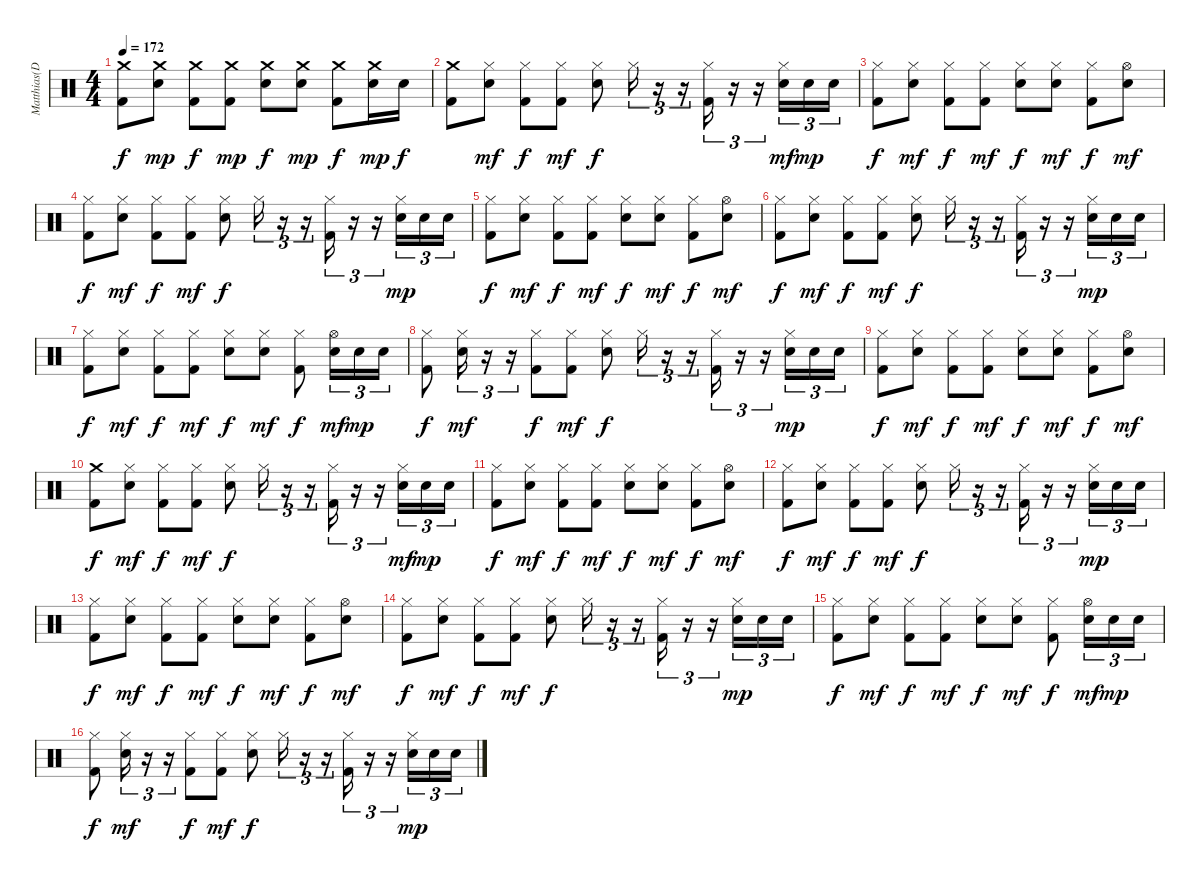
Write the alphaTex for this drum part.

\track ("Matthias(Drums)" "Matthias(D") {instrument percussion}
\staff {score}
\articulation defaults
\ts (4 4)
\tempo 172
\clef neutral
\ks c
("Crash medium (hit)" "Kick (hit) 2").8{dy f} ("Crash medium (hit)" "Snare (hit) 2").8{dy mp} ("Crash medium (hit)" "Kick (hit) 2").8{dy f} ("Crash medium (hit)" "Kick (hit) 2").8{dy mp} ("Crash medium (hit)" "Snare (hit) 2").8{dy f} ("Crash medium (hit)" "Snare (hit) 2").8{dy mp} ("Crash medium (hit)" "Kick (hit) 2").8{dy f} ("Crash medium (hit)" "Snare (hit) 2").16{dy mp} "Snare (hit) 2".16{dy f} |
("Crash medium (hit)" "Kick (hit) 2").8 ("Hi-Hat (closed)" "Snare (hit) 2").8{dy mf} ("Hi-Hat (closed)" "Kick (hit) 2").8{dy f} ("Hi-Hat (closed)" "Kick (hit) 2").8{dy mf} ("Hi-Hat (closed)" "Snare (hit) 2").8{dy f} "Hi-Hat (closed)".16{tu (3 2)} r.16{tu (3 2)} r.16{tu (3 2)} ("Hi-Hat (closed)" "Kick (hit) 2").16{tu (3 2)} r.16{tu (3 2)} r.16{tu (3 2)} ("Hi-Hat (closed)" "Snare (hit) 2").16{tu (3 2) dy mf} "Snare (hit) 2".16{tu (3 2) dy mp} "Snare (hit) 2".16{tu (3 2)} |
("Hi-Hat (closed)" "Kick (hit) 2").8{dy f} ("Hi-Hat (closed)" "Snare (hit) 2").8{dy mf} ("Hi-Hat (closed)" "Kick (hit) 2").8{dy f} ("Hi-Hat (closed)" "Kick (hit) 2").8{dy mf} ("Hi-Hat (closed)" "Snare (hit) 2").8{dy f} ("Hi-Hat (closed)" "Snare (hit) 2").8{dy mf} ("Hi-Hat (closed)" "Kick (hit) 2").8{dy f} ("Hi-Hat (open)" "Snare (hit) 2").8{dy mf} |
("Hi-Hat (closed)" "Kick (hit) 2").8{dy f} ("Hi-Hat (closed)" "Snare (hit) 2").8{dy mf} ("Hi-Hat (closed)" "Kick (hit) 2").8{dy f} ("Hi-Hat (closed)" "Kick (hit) 2").8{dy mf} ("Hi-Hat (closed)" "Snare (hit) 2").8{dy f} "Hi-Hat (closed)".16{tu (3 2)} r.16{tu (3 2)} r.16{tu (3 2)} ("Hi-Hat (closed)" "Kick (hit) 2").16{tu (3 2)} r.16{tu (3 2)} r.16{tu (3 2)} ("Hi-Hat (closed)" "Snare (hit) 2").16{tu (3 2) dy mp} "Snare (hit) 2".16{tu (3 2)} "Snare (hit) 2".16{tu (3 2)} |
("Hi-Hat (closed)" "Kick (hit) 2").8{dy f} ("Hi-Hat (closed)" "Snare (hit) 2").8{dy mf} ("Hi-Hat (closed)" "Kick (hit) 2").8{dy f} ("Hi-Hat (closed)" "Kick (hit) 2").8{dy mf} ("Hi-Hat (closed)" "Snare (hit) 2").8{dy f} ("Hi-Hat (closed)" "Snare (hit) 2").8{dy mf} ("Hi-Hat (closed)" "Kick (hit) 2").8{dy f} ("Hi-Hat (open)" "Snare (hit) 2").8{dy mf} |
("Hi-Hat (closed)" "Kick (hit) 2").8{dy f} ("Hi-Hat (closed)" "Snare (hit) 2").8{dy mf} ("Hi-Hat (closed)" "Kick (hit) 2").8{dy f} ("Hi-Hat (closed)" "Kick (hit) 2").8{dy mf} ("Hi-Hat (closed)" "Snare (hit) 2").8{dy f} "Hi-Hat (closed)".16{tu (3 2)} r.16{tu (3 2)} r.16{tu (3 2)} ("Hi-Hat (closed)" "Kick (hit) 2").16{tu (3 2)} r.16{tu (3 2)} r.16{tu (3 2)} ("Hi-Hat (closed)" "Snare (hit) 2").16{tu (3 2) dy mp} "Snare (hit) 2".16{tu (3 2)} "Snare (hit) 2".16{tu (3 2)} |
("Hi-Hat (closed)" "Kick (hit) 2").8{dy f} ("Hi-Hat (closed)" "Snare (hit) 2").8{dy mf} ("Hi-Hat (closed)" "Kick (hit) 2").8{dy f} ("Hi-Hat (closed)" "Kick (hit) 2").8{dy mf} ("Hi-Hat (closed)" "Snare (hit) 2").8{dy f} ("Hi-Hat (closed)" "Snare (hit) 2").8{dy mf} ("Hi-Hat (closed)" "Kick (hit) 2").8{dy f} ("Hi-Hat (open)" "Snare (hit) 2").16{tu (3 2) dy mf} "Snare (hit) 2".16{tu (3 2) dy mp} "Snare (hit) 2".16{tu (3 2)} |
("Hi-Hat (closed)" "Kick (hit) 2").8{dy f} ("Hi-Hat (closed)" "Snare (hit) 2").16{tu (3 2) dy mf} r.16{tu (3 2)} r.16{tu (3 2)} ("Hi-Hat (closed)" "Kick (hit) 2").8{dy f} ("Hi-Hat (closed)" "Kick (hit) 2").8{dy mf} ("Hi-Hat (closed)" "Snare (hit) 2").8{dy f} "Hi-Hat (closed)".16{tu (3 2)} r.16{tu (3 2)} r.16{tu (3 2)} ("Hi-Hat (closed)" "Kick (hit) 2").16{tu (3 2)} r.16{tu (3 2)} r.16{tu (3 2)} ("Hi-Hat (closed)" "Snare (hit) 2").16{tu (3 2) dy mp} "Snare (hit) 2".16{tu (3 2)} "Snare (hit) 2".16{tu (3 2)} |
("Hi-Hat (closed)" "Kick (hit) 2").8{dy f} ("Hi-Hat (closed)" "Snare (hit) 2").8{dy mf} ("Hi-Hat (closed)" "Kick (hit) 2").8{dy f} ("Hi-Hat (closed)" "Kick (hit) 2").8{dy mf} ("Hi-Hat (closed)" "Snare (hit) 2").8{dy f} ("Hi-Hat (closed)" "Snare (hit) 2").8{dy mf} ("Hi-Hat (closed)" "Kick (hit) 2").8{dy f} ("Hi-Hat (open)" "Snare (hit) 2").8{dy mf} |
("Crash medium (hit)" "Kick (hit) 2").8{dy f} ("Hi-Hat (closed)" "Snare (hit) 2").8{dy mf} ("Hi-Hat (closed)" "Kick (hit) 2").8{dy f} ("Hi-Hat (closed)" "Kick (hit) 2").8{dy mf} ("Hi-Hat (closed)" "Snare (hit) 2").8{dy f} "Hi-Hat (closed)".16{tu (3 2)} r.16{tu (3 2)} r.16{tu (3 2)} ("Hi-Hat (closed)" "Kick (hit) 2").16{tu (3 2)} r.16{tu (3 2)} r.16{tu (3 2)} ("Hi-Hat (closed)" "Snare (hit) 2").16{tu (3 2) dy mf} "Snare (hit) 2".16{tu (3 2) dy mp} "Snare (hit) 2".16{tu (3 2)} |
("Hi-Hat (closed)" "Kick (hit) 2").8{dy f} ("Hi-Hat (closed)" "Snare (hit) 2").8{dy mf} ("Hi-Hat (closed)" "Kick (hit) 2").8{dy f} ("Hi-Hat (closed)" "Kick (hit) 2").8{dy mf} ("Hi-Hat (closed)" "Snare (hit) 2").8{dy f} ("Hi-Hat (closed)" "Snare (hit) 2").8{dy mf} ("Hi-Hat (closed)" "Kick (hit) 2").8{dy f} ("Hi-Hat (open)" "Snare (hit) 2").8{dy mf} |
("Hi-Hat (closed)" "Kick (hit) 2").8{dy f} ("Hi-Hat (closed)" "Snare (hit) 2").8{dy mf} ("Hi-Hat (closed)" "Kick (hit) 2").8{dy f} ("Hi-Hat (closed)" "Kick (hit) 2").8{dy mf} ("Hi-Hat (closed)" "Snare (hit) 2").8{dy f} "Hi-Hat (closed)".16{tu (3 2)} r.16{tu (3 2)} r.16{tu (3 2)} ("Hi-Hat (closed)" "Kick (hit) 2").16{tu (3 2)} r.16{tu (3 2)} r.16{tu (3 2)} ("Hi-Hat (closed)" "Snare (hit) 2").16{tu (3 2) dy mp} "Snare (hit) 2".16{tu (3 2)} "Snare (hit) 2".16{tu (3 2)} |
("Hi-Hat (closed)" "Kick (hit) 2").8{dy f} ("Hi-Hat (closed)" "Snare (hit) 2").8{dy mf} ("Hi-Hat (closed)" "Kick (hit) 2").8{dy f} ("Hi-Hat (closed)" "Kick (hit) 2").8{dy mf} ("Hi-Hat (closed)" "Snare (hit) 2").8{dy f} ("Hi-Hat (closed)" "Snare (hit) 2").8{dy mf} ("Hi-Hat (closed)" "Kick (hit) 2").8{dy f} ("Hi-Hat (open)" "Snare (hit) 2").8{dy mf} |
("Hi-Hat (closed)" "Kick (hit) 2").8{dy f} ("Hi-Hat (closed)" "Snare (hit) 2").8{dy mf} ("Hi-Hat (closed)" "Kick (hit) 2").8{dy f} ("Hi-Hat (closed)" "Kick (hit) 2").8{dy mf} ("Hi-Hat (closed)" "Snare (hit) 2").8{dy f} "Hi-Hat (closed)".16{tu (3 2)} r.16{tu (3 2)} r.16{tu (3 2)} ("Hi-Hat (closed)" "Kick (hit) 2").16{tu (3 2)} r.16{tu (3 2)} r.16{tu (3 2)} ("Hi-Hat (closed)" "Snare (hit) 2").16{tu (3 2) dy mp} "Snare (hit) 2".16{tu (3 2)} "Snare (hit) 2".16{tu (3 2)} |
("Hi-Hat (closed)" "Kick (hit) 2").8{dy f} ("Hi-Hat (closed)" "Snare (hit) 2").8{dy mf} ("Hi-Hat (closed)" "Kick (hit) 2").8{dy f} ("Hi-Hat (closed)" "Kick (hit) 2").8{dy mf} ("Hi-Hat (closed)" "Snare (hit) 2").8{dy f} ("Hi-Hat (closed)" "Snare (hit) 2").8{dy mf} ("Hi-Hat (closed)" "Kick (hit) 2").8{dy f} ("Hi-Hat (open)" "Snare (hit) 2").16{tu (3 2) dy mf} "Snare (hit) 2".16{tu (3 2) dy mp} "Snare (hit) 2".16{tu (3 2)} |
("Hi-Hat (closed)" "Kick (hit) 2").8{dy f} ("Hi-Hat (closed)" "Snare (hit) 2").16{tu (3 2) dy mf} r.16{tu (3 2)} r.16{tu (3 2)} ("Hi-Hat (closed)" "Kick (hit) 2").8{dy f} ("Hi-Hat (closed)" "Kick (hit) 2").8{dy mf} ("Hi-Hat (closed)" "Snare (hit) 2").8{dy f} "Hi-Hat (closed)".16{tu (3 2)} r.16{tu (3 2)} r.16{tu (3 2)} ("Hi-Hat (closed)" "Kick (hit) 2").16{tu (3 2)} r.16{tu (3 2)} r.16{tu (3 2)} ("Hi-Hat (closed)" "Snare (hit) 2").16{tu (3 2) dy mp} "Snare (hit) 2".16{tu (3 2)} "Snare (hit) 2".16{tu (3 2)}
